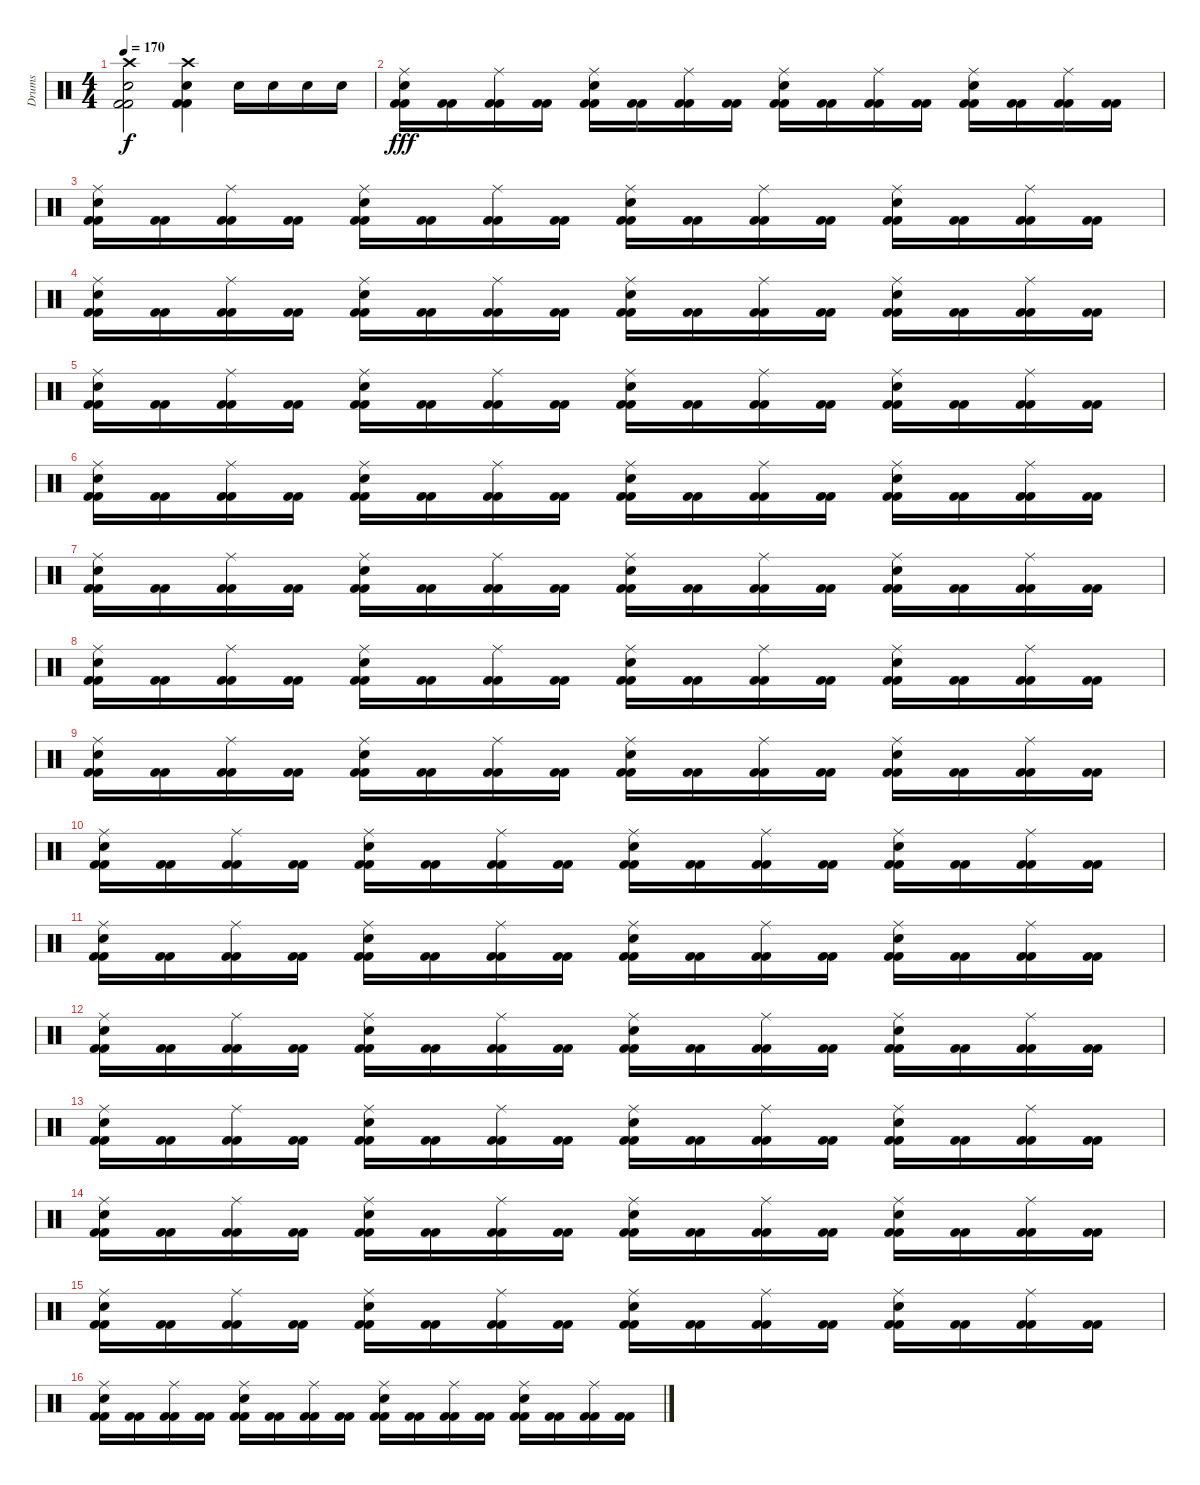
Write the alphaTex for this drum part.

\track ("Drums" "Drums") {instrument percussion}
\staff {score}
\articulation defaults
\ts (4 4)
\tempo 170
\clef neutral
\ks c
("Crash high (hit)" "Electric Snare (hit)" "Kick (hit) 2" "Kick (hit) 2").2{dy f} ("Crash high (hit)" "Electric Snare (hit)" "Kick (hit) 2" "Kick (hit) 2").4 "Electric Snare (hit)".16 "Electric Snare (hit)".16 "Electric Snare (hit)".16 "Electric Snare (hit)".16 |
("Kick (hit) 2" "Kick (hit) 2" "Electric Snare (hit)" "Ride (middle)").16{dy fff} ("Kick (hit) 2" "Kick (hit) 2").16 ("Kick (hit) 2" "Kick (hit) 2" "Ride (middle)").16 ("Kick (hit) 2" "Kick (hit) 2").16 ("Kick (hit) 2" "Kick (hit) 2" "Electric Snare (hit)" "Ride (middle)").16 ("Kick (hit) 2" "Kick (hit) 2").16 ("Kick (hit) 2" "Kick (hit) 2" "Ride (middle)").16 ("Kick (hit) 2" "Kick (hit) 2").16 ("Kick (hit) 2" "Kick (hit) 2" "Electric Snare (hit)" "Ride (middle)").16 ("Kick (hit) 2" "Kick (hit) 2").16 ("Kick (hit) 2" "Kick (hit) 2" "Ride (middle)").16 ("Kick (hit) 2" "Kick (hit) 2").16 ("Kick (hit) 2" "Kick (hit) 2" "Electric Snare (hit)" "Ride (middle)").16 ("Kick (hit) 2" "Kick (hit) 2").16 ("Kick (hit) 2" "Kick (hit) 2" "Ride (middle)").16 ("Kick (hit) 2" "Kick (hit) 2").16 |
("Kick (hit) 2" "Kick (hit) 2" "Electric Snare (hit)" "Ride (middle)").16 ("Kick (hit) 2" "Kick (hit) 2").16 ("Kick (hit) 2" "Kick (hit) 2" "Ride (middle)").16 ("Kick (hit) 2" "Kick (hit) 2").16 ("Kick (hit) 2" "Kick (hit) 2" "Electric Snare (hit)" "Ride (middle)").16 ("Kick (hit) 2" "Kick (hit) 2").16 ("Kick (hit) 2" "Kick (hit) 2" "Ride (middle)").16 ("Kick (hit) 2" "Kick (hit) 2").16 ("Kick (hit) 2" "Kick (hit) 2" "Electric Snare (hit)" "Ride (middle)").16 ("Kick (hit) 2" "Kick (hit) 2").16 ("Kick (hit) 2" "Kick (hit) 2" "Ride (middle)").16 ("Kick (hit) 2" "Kick (hit) 2").16 ("Kick (hit) 2" "Kick (hit) 2" "Electric Snare (hit)" "Ride (middle)").16 ("Kick (hit) 2" "Kick (hit) 2").16 ("Kick (hit) 2" "Kick (hit) 2" "Ride (middle)").16 ("Kick (hit) 2" "Kick (hit) 2").16 |
("Kick (hit) 2" "Kick (hit) 2" "Electric Snare (hit)" "Ride (middle)").16 ("Kick (hit) 2" "Kick (hit) 2").16 ("Kick (hit) 2" "Kick (hit) 2" "Ride (middle)").16 ("Kick (hit) 2" "Kick (hit) 2").16 ("Kick (hit) 2" "Kick (hit) 2" "Electric Snare (hit)" "Ride (middle)").16 ("Kick (hit) 2" "Kick (hit) 2").16 ("Kick (hit) 2" "Kick (hit) 2" "Ride (middle)").16 ("Kick (hit) 2" "Kick (hit) 2").16 ("Kick (hit) 2" "Kick (hit) 2" "Electric Snare (hit)" "Ride (middle)").16 ("Kick (hit) 2" "Kick (hit) 2").16 ("Kick (hit) 2" "Kick (hit) 2" "Ride (middle)").16 ("Kick (hit) 2" "Kick (hit) 2").16 ("Kick (hit) 2" "Kick (hit) 2" "Electric Snare (hit)" "Ride (middle)").16 ("Kick (hit) 2" "Kick (hit) 2").16 ("Kick (hit) 2" "Kick (hit) 2" "Ride (middle)").16 ("Kick (hit) 2" "Kick (hit) 2").16 |
("Kick (hit) 2" "Kick (hit) 2" "Electric Snare (hit)" "Ride (middle)").16 ("Kick (hit) 2" "Kick (hit) 2").16 ("Kick (hit) 2" "Kick (hit) 2" "Ride (middle)").16 ("Kick (hit) 2" "Kick (hit) 2").16 ("Kick (hit) 2" "Kick (hit) 2" "Electric Snare (hit)" "Ride (middle)").16 ("Kick (hit) 2" "Kick (hit) 2").16 ("Kick (hit) 2" "Kick (hit) 2" "Ride (middle)").16 ("Kick (hit) 2" "Kick (hit) 2").16 ("Kick (hit) 2" "Kick (hit) 2" "Electric Snare (hit)" "Ride (middle)").16 ("Kick (hit) 2" "Kick (hit) 2").16 ("Kick (hit) 2" "Kick (hit) 2" "Ride (middle)").16 ("Kick (hit) 2" "Kick (hit) 2").16 ("Kick (hit) 2" "Kick (hit) 2" "Electric Snare (hit)" "Ride (middle)").16 ("Kick (hit) 2" "Kick (hit) 2").16 ("Kick (hit) 2" "Kick (hit) 2" "Ride (middle)").16 ("Kick (hit) 2" "Kick (hit) 2").16 |
("Kick (hit) 2" "Kick (hit) 2" "Electric Snare (hit)" "Ride (middle)").16 ("Kick (hit) 2" "Kick (hit) 2").16 ("Kick (hit) 2" "Kick (hit) 2" "Ride (middle)").16 ("Kick (hit) 2" "Kick (hit) 2").16 ("Kick (hit) 2" "Kick (hit) 2" "Electric Snare (hit)" "Ride (middle)").16 ("Kick (hit) 2" "Kick (hit) 2").16 ("Kick (hit) 2" "Kick (hit) 2" "Ride (middle)").16 ("Kick (hit) 2" "Kick (hit) 2").16 ("Kick (hit) 2" "Kick (hit) 2" "Electric Snare (hit)" "Ride (middle)").16 ("Kick (hit) 2" "Kick (hit) 2").16 ("Kick (hit) 2" "Kick (hit) 2" "Ride (middle)").16 ("Kick (hit) 2" "Kick (hit) 2").16 ("Kick (hit) 2" "Kick (hit) 2" "Electric Snare (hit)" "Ride (middle)").16 ("Kick (hit) 2" "Kick (hit) 2").16 ("Kick (hit) 2" "Kick (hit) 2" "Ride (middle)").16 ("Kick (hit) 2" "Kick (hit) 2").16 |
("Kick (hit) 2" "Kick (hit) 2" "Electric Snare (hit)" "Ride (middle)").16 ("Kick (hit) 2" "Kick (hit) 2").16 ("Kick (hit) 2" "Kick (hit) 2" "Ride (middle)").16 ("Kick (hit) 2" "Kick (hit) 2").16 ("Kick (hit) 2" "Kick (hit) 2" "Electric Snare (hit)" "Ride (middle)").16 ("Kick (hit) 2" "Kick (hit) 2").16 ("Kick (hit) 2" "Kick (hit) 2" "Ride (middle)").16 ("Kick (hit) 2" "Kick (hit) 2").16 ("Kick (hit) 2" "Kick (hit) 2" "Electric Snare (hit)" "Ride (middle)").16 ("Kick (hit) 2" "Kick (hit) 2").16 ("Kick (hit) 2" "Kick (hit) 2" "Ride (middle)").16 ("Kick (hit) 2" "Kick (hit) 2").16 ("Kick (hit) 2" "Kick (hit) 2" "Electric Snare (hit)" "Ride (middle)").16 ("Kick (hit) 2" "Kick (hit) 2").16 ("Kick (hit) 2" "Kick (hit) 2" "Ride (middle)").16 ("Kick (hit) 2" "Kick (hit) 2").16 |
("Kick (hit) 2" "Kick (hit) 2" "Electric Snare (hit)" "Ride (middle)").16 ("Kick (hit) 2" "Kick (hit) 2").16 ("Kick (hit) 2" "Kick (hit) 2" "Ride (middle)").16 ("Kick (hit) 2" "Kick (hit) 2").16 ("Kick (hit) 2" "Kick (hit) 2" "Electric Snare (hit)" "Ride (middle)").16 ("Kick (hit) 2" "Kick (hit) 2").16 ("Kick (hit) 2" "Kick (hit) 2" "Ride (middle)").16 ("Kick (hit) 2" "Kick (hit) 2").16 ("Kick (hit) 2" "Kick (hit) 2" "Electric Snare (hit)" "Ride (middle)").16 ("Kick (hit) 2" "Kick (hit) 2").16 ("Kick (hit) 2" "Kick (hit) 2" "Ride (middle)").16 ("Kick (hit) 2" "Kick (hit) 2").16 ("Kick (hit) 2" "Kick (hit) 2" "Electric Snare (hit)" "Ride (middle)").16 ("Kick (hit) 2" "Kick (hit) 2").16 ("Kick (hit) 2" "Kick (hit) 2" "Ride (middle)").16 ("Kick (hit) 2" "Kick (hit) 2").16 |
("Kick (hit) 2" "Kick (hit) 2" "Electric Snare (hit)" "Ride (middle)").16 ("Kick (hit) 2" "Kick (hit) 2").16 ("Kick (hit) 2" "Kick (hit) 2" "Ride (middle)").16 ("Kick (hit) 2" "Kick (hit) 2").16 ("Kick (hit) 2" "Kick (hit) 2" "Electric Snare (hit)" "Ride (middle)").16 ("Kick (hit) 2" "Kick (hit) 2").16 ("Kick (hit) 2" "Kick (hit) 2" "Ride (middle)").16 ("Kick (hit) 2" "Kick (hit) 2").16 ("Kick (hit) 2" "Kick (hit) 2" "Electric Snare (hit)" "Ride (middle)").16 ("Kick (hit) 2" "Kick (hit) 2").16 ("Kick (hit) 2" "Kick (hit) 2" "Ride (middle)").16 ("Kick (hit) 2" "Kick (hit) 2").16 ("Kick (hit) 2" "Kick (hit) 2" "Electric Snare (hit)" "Ride (middle)").16 ("Kick (hit) 2" "Kick (hit) 2").16 ("Kick (hit) 2" "Kick (hit) 2" "Ride (middle)").16 ("Kick (hit) 2" "Kick (hit) 2").16 |
("Kick (hit) 2" "Kick (hit) 2" "Electric Snare (hit)" "Ride (middle)").16 ("Kick (hit) 2" "Kick (hit) 2").16 ("Kick (hit) 2" "Kick (hit) 2" "Ride (middle)").16 ("Kick (hit) 2" "Kick (hit) 2").16 ("Kick (hit) 2" "Kick (hit) 2" "Electric Snare (hit)" "Ride (middle)").16 ("Kick (hit) 2" "Kick (hit) 2").16 ("Kick (hit) 2" "Kick (hit) 2" "Ride (middle)").16 ("Kick (hit) 2" "Kick (hit) 2").16 ("Kick (hit) 2" "Kick (hit) 2" "Electric Snare (hit)" "Ride (middle)").16 ("Kick (hit) 2" "Kick (hit) 2").16 ("Kick (hit) 2" "Kick (hit) 2" "Ride (middle)").16 ("Kick (hit) 2" "Kick (hit) 2").16 ("Kick (hit) 2" "Kick (hit) 2" "Electric Snare (hit)" "Ride (middle)").16 ("Kick (hit) 2" "Kick (hit) 2").16 ("Kick (hit) 2" "Kick (hit) 2" "Ride (middle)").16 ("Kick (hit) 2" "Kick (hit) 2").16 |
("Kick (hit) 2" "Kick (hit) 2" "Electric Snare (hit)" "Ride (middle)").16 ("Kick (hit) 2" "Kick (hit) 2").16 ("Kick (hit) 2" "Kick (hit) 2" "Ride (middle)").16 ("Kick (hit) 2" "Kick (hit) 2").16 ("Kick (hit) 2" "Kick (hit) 2" "Electric Snare (hit)" "Ride (middle)").16 ("Kick (hit) 2" "Kick (hit) 2").16 ("Kick (hit) 2" "Kick (hit) 2" "Ride (middle)").16 ("Kick (hit) 2" "Kick (hit) 2").16 ("Kick (hit) 2" "Kick (hit) 2" "Electric Snare (hit)" "Ride (middle)").16 ("Kick (hit) 2" "Kick (hit) 2").16 ("Kick (hit) 2" "Kick (hit) 2" "Ride (middle)").16 ("Kick (hit) 2" "Kick (hit) 2").16 ("Kick (hit) 2" "Kick (hit) 2" "Electric Snare (hit)" "Ride (middle)").16 ("Kick (hit) 2" "Kick (hit) 2").16 ("Kick (hit) 2" "Kick (hit) 2" "Ride (middle)").16 ("Kick (hit) 2" "Kick (hit) 2").16 |
("Kick (hit) 2" "Kick (hit) 2" "Electric Snare (hit)" "Ride (middle)").16 ("Kick (hit) 2" "Kick (hit) 2").16 ("Kick (hit) 2" "Kick (hit) 2" "Ride (middle)").16 ("Kick (hit) 2" "Kick (hit) 2").16 ("Kick (hit) 2" "Kick (hit) 2" "Electric Snare (hit)" "Ride (middle)").16 ("Kick (hit) 2" "Kick (hit) 2").16 ("Kick (hit) 2" "Kick (hit) 2" "Ride (middle)").16 ("Kick (hit) 2" "Kick (hit) 2").16 ("Kick (hit) 2" "Kick (hit) 2" "Electric Snare (hit)" "Ride (middle)").16 ("Kick (hit) 2" "Kick (hit) 2").16 ("Kick (hit) 2" "Kick (hit) 2" "Ride (middle)").16 ("Kick (hit) 2" "Kick (hit) 2").16 ("Kick (hit) 2" "Kick (hit) 2" "Electric Snare (hit)" "Ride (middle)").16 ("Kick (hit) 2" "Kick (hit) 2").16 ("Kick (hit) 2" "Kick (hit) 2" "Ride (middle)").16 ("Kick (hit) 2" "Kick (hit) 2").16 |
("Kick (hit) 2" "Kick (hit) 2" "Electric Snare (hit)" "Ride (middle)").16 ("Kick (hit) 2" "Kick (hit) 2").16 ("Kick (hit) 2" "Kick (hit) 2" "Ride (middle)").16 ("Kick (hit) 2" "Kick (hit) 2").16 ("Kick (hit) 2" "Kick (hit) 2" "Electric Snare (hit)" "Ride (middle)").16 ("Kick (hit) 2" "Kick (hit) 2").16 ("Kick (hit) 2" "Kick (hit) 2" "Ride (middle)").16 ("Kick (hit) 2" "Kick (hit) 2").16 ("Kick (hit) 2" "Kick (hit) 2" "Electric Snare (hit)" "Ride (middle)").16 ("Kick (hit) 2" "Kick (hit) 2").16 ("Kick (hit) 2" "Kick (hit) 2" "Ride (middle)").16 ("Kick (hit) 2" "Kick (hit) 2").16 ("Kick (hit) 2" "Kick (hit) 2" "Electric Snare (hit)" "Ride (middle)").16 ("Kick (hit) 2" "Kick (hit) 2").16 ("Kick (hit) 2" "Kick (hit) 2" "Ride (middle)").16 ("Kick (hit) 2" "Kick (hit) 2").16 |
("Kick (hit) 2" "Kick (hit) 2" "Electric Snare (hit)" "Ride (middle)").16 ("Kick (hit) 2" "Kick (hit) 2").16 ("Kick (hit) 2" "Kick (hit) 2" "Ride (middle)").16 ("Kick (hit) 2" "Kick (hit) 2").16 ("Kick (hit) 2" "Kick (hit) 2" "Electric Snare (hit)" "Ride (middle)").16 ("Kick (hit) 2" "Kick (hit) 2").16 ("Kick (hit) 2" "Kick (hit) 2" "Ride (middle)").16 ("Kick (hit) 2" "Kick (hit) 2").16 ("Kick (hit) 2" "Kick (hit) 2" "Electric Snare (hit)" "Ride (middle)").16 ("Kick (hit) 2" "Kick (hit) 2").16 ("Kick (hit) 2" "Kick (hit) 2" "Ride (middle)").16 ("Kick (hit) 2" "Kick (hit) 2").16 ("Kick (hit) 2" "Kick (hit) 2" "Electric Snare (hit)" "Ride (middle)").16 ("Kick (hit) 2" "Kick (hit) 2").16 ("Kick (hit) 2" "Kick (hit) 2" "Ride (middle)").16 ("Kick (hit) 2" "Kick (hit) 2").16 |
("Kick (hit) 2" "Kick (hit) 2" "Electric Snare (hit)" "Ride (middle)").16 ("Kick (hit) 2" "Kick (hit) 2").16 ("Kick (hit) 2" "Kick (hit) 2" "Ride (middle)").16 ("Kick (hit) 2" "Kick (hit) 2").16 ("Kick (hit) 2" "Kick (hit) 2" "Electric Snare (hit)" "Ride (middle)").16 ("Kick (hit) 2" "Kick (hit) 2").16 ("Kick (hit) 2" "Kick (hit) 2" "Ride (middle)").16 ("Kick (hit) 2" "Kick (hit) 2").16 ("Kick (hit) 2" "Kick (hit) 2" "Electric Snare (hit)" "Ride (middle)").16 ("Kick (hit) 2" "Kick (hit) 2").16 ("Kick (hit) 2" "Kick (hit) 2" "Ride (middle)").16 ("Kick (hit) 2" "Kick (hit) 2").16 ("Kick (hit) 2" "Kick (hit) 2" "Electric Snare (hit)" "Ride (middle)").16 ("Kick (hit) 2" "Kick (hit) 2").16 ("Kick (hit) 2" "Kick (hit) 2" "Ride (middle)").16 ("Kick (hit) 2" "Kick (hit) 2").16 |
("Kick (hit) 2" "Kick (hit) 2" "Electric Snare (hit)" "Ride (middle)").16 ("Kick (hit) 2" "Kick (hit) 2").16 ("Kick (hit) 2" "Kick (hit) 2" "Ride (middle)").16 ("Kick (hit) 2" "Kick (hit) 2").16 ("Kick (hit) 2" "Kick (hit) 2" "Electric Snare (hit)" "Ride (middle)").16 ("Kick (hit) 2" "Kick (hit) 2").16 ("Kick (hit) 2" "Kick (hit) 2" "Ride (middle)").16 ("Kick (hit) 2" "Kick (hit) 2").16 ("Kick (hit) 2" "Kick (hit) 2" "Electric Snare (hit)" "Ride (middle)").16 ("Kick (hit) 2" "Kick (hit) 2").16 ("Kick (hit) 2" "Kick (hit) 2" "Ride (middle)").16 ("Kick (hit) 2" "Kick (hit) 2").16 ("Kick (hit) 2" "Kick (hit) 2" "Electric Snare (hit)" "Ride (middle)").16 ("Kick (hit) 2" "Kick (hit) 2").16 ("Kick (hit) 2" "Kick (hit) 2" "Ride (middle)").16 ("Kick (hit) 2" "Kick (hit) 2").16
